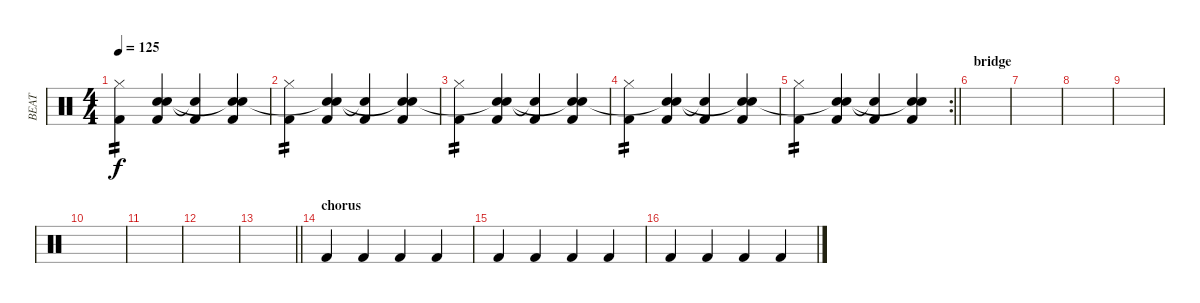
\track ("BEAT" "BEAT") {instrument percussion bank 2}
\staff {score}
\articulation defaults
\ts (4 4)
\tempo 125
\clef neutral
\ks c
("Kick (hit) 2" "Hi-Hat (closed)").4{tp 2 dy f} ("Kick (hit) 2" "Electric Snare (hit)" "Snare (hit)"{t}).4 ("Kick (hit) 2" "Snare (hit)"{t}).4 ("Kick (hit) 2" "Electric Snare (hit)" "Snare (hit)"{t}).4 |
("Kick (hit) 2" "Hi-Hat (closed)").4{tp 2} ("Kick (hit) 2" "Electric Snare (hit)" "Snare (hit)"{t}).4 ("Kick (hit) 2" "Snare (hit)"{t}).4 ("Kick (hit) 2" "Electric Snare (hit)" "Snare (hit)"{t}).4 |
("Kick (hit) 2" "Hi-Hat (closed)").4{tp 2} ("Kick (hit) 2" "Electric Snare (hit)" "Snare (hit)"{t}).4 ("Kick (hit) 2" "Snare (hit)"{t}).4 ("Kick (hit) 2" "Electric Snare (hit)" "Snare (hit)"{t}).4 |
("Kick (hit) 2" "Hi-Hat (closed)").4{tp 2} ("Kick (hit) 2" "Electric Snare (hit)" "Snare (hit)"{t}).4 ("Kick (hit) 2" "Snare (hit)"{t}).4 ("Kick (hit) 2" "Electric Snare (hit)" "Snare (hit)"{t}).4 |
\rc 2
\barLineRight lightlight
("Kick (hit) 2" "Hi-Hat (closed)").4{tp 2} ("Kick (hit) 2" "Electric Snare (hit)" "Snare (hit)"{t}).4 ("Kick (hit) 2" "Snare (hit)"{t}).4 ("Kick (hit) 2" "Electric Snare (hit)" "Snare (hit)"{t}).4 |
\section ("" "bridge")
|
|
|
|
|
|
|
\barLineRight lightlight
|
\section ("" "chorus")
"Kick (hit) 2".4 "Kick (hit) 2".4 "Kick (hit) 2".4 "Kick (hit) 2".4 |
"Kick (hit) 2".4 "Kick (hit) 2".4 "Kick (hit) 2".4 "Kick (hit) 2".4 |
"Kick (hit) 2".4 "Kick (hit) 2".4 "Kick (hit) 2".4 "Kick (hit) 2".4
